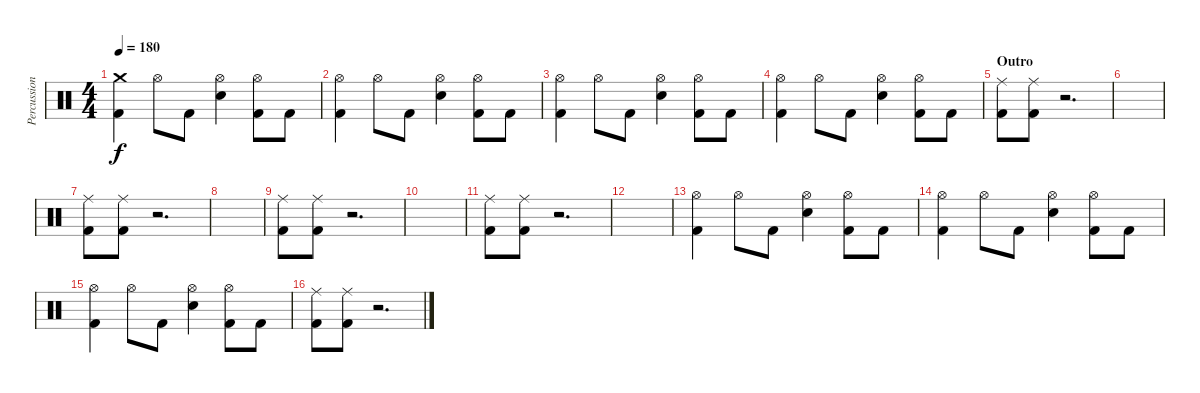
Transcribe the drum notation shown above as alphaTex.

\track ("Percussion" "Percussion") {instrument percussion}
\staff {score}
\articulation defaults
\ts (4 4)
\tempo 180
\clef neutral
\ks c
("Crash medium (hit)" "Kick (hit) 2").4{dy f} "Hi-Hat (open)".8 "Kick (hit) 2".8 ("Hi-Hat (open)" "Electric Snare (hit)").4 ("Hi-Hat (open)" "Kick (hit) 2").8 "Kick (hit) 2".8 |
("Hi-Hat (open)" "Kick (hit) 2").4 "Hi-Hat (open)".8 "Kick (hit) 2".8 ("Hi-Hat (open)" "Electric Snare (hit)").4 ("Hi-Hat (open)" "Kick (hit) 2").8 "Kick (hit) 2".8 |
("Hi-Hat (open)" "Kick (hit) 2").4 "Hi-Hat (open)".8 "Kick (hit) 2".8 ("Hi-Hat (open)" "Electric Snare (hit)").4 ("Hi-Hat (open)" "Kick (hit) 2").8 "Kick (hit) 2".8 |
("Hi-Hat (open)" "Kick (hit) 2").4 "Hi-Hat (open)".8 "Kick (hit) 2".8 ("Hi-Hat (open)" "Electric Snare (hit)").4 ("Hi-Hat (open)" "Kick (hit) 2").8 "Kick (hit) 2".8 |
\section ("" "Outro")
("Ride (middle)" "Kick (hit) 2").8 ("Ride (middle)" "Kick (hit) 2").8 r.2{d} |
|
("Ride (middle)" "Kick (hit) 2").8 ("Ride (middle)" "Kick (hit) 2").8 r.2{d} |
|
("Ride (middle)" "Kick (hit) 2").8 ("Ride (middle)" "Kick (hit) 2").8 r.2{d} |
|
("Ride (middle)" "Kick (hit) 2").8 ("Ride (middle)" "Kick (hit) 2").8 r.2{d} |
|
("Hi-Hat (open)" "Kick (hit) 2").4 "Hi-Hat (open)".8 "Kick (hit) 2".8 ("Hi-Hat (open)" "Electric Snare (hit)").4 ("Hi-Hat (open)" "Kick (hit) 2").8 "Kick (hit) 2".8 |
("Hi-Hat (open)" "Kick (hit) 2").4 "Hi-Hat (open)".8 "Kick (hit) 2".8 ("Hi-Hat (open)" "Electric Snare (hit)").4 ("Hi-Hat (open)" "Kick (hit) 2").8 "Kick (hit) 2".8 |
("Hi-Hat (open)" "Kick (hit) 2").4 "Hi-Hat (open)".8 "Kick (hit) 2".8 ("Hi-Hat (open)" "Electric Snare (hit)").4 ("Hi-Hat (open)" "Kick (hit) 2").8 "Kick (hit) 2".8 |
("Ride (middle)" "Kick (hit) 2").8 ("Ride (middle)" "Kick (hit) 2").8 r.2{d}
